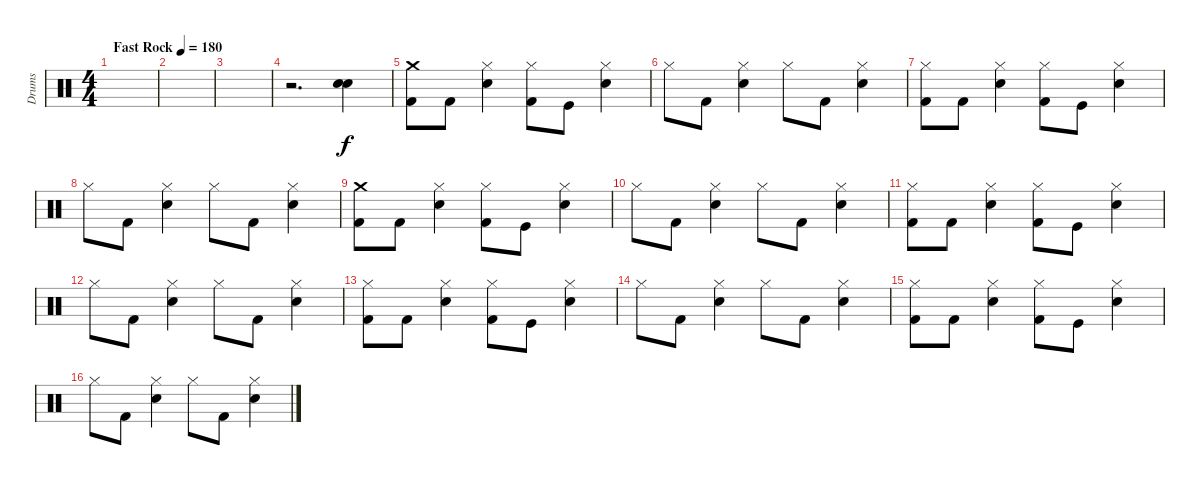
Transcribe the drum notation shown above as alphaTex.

\track ("Drums" "Drums") {instrument percussion}
\staff {score}
\articulation defaults
\ts (4 4)
\tempo (180 "Fast Rock")
\clef neutral
\ks c
|
|
|
r.2{d} ("Electric Snare (hit)" "Electric Snare (hit)").4 |
("Crash medium (hit)" "Kick (hit) 2").8 "Kick (hit) 2".8 ("Hi-Hat (closed)" "Electric Snare (hit)").4 ("Hi-Hat (closed)" "Kick (hit) 2").8 "Kick (hit)".8 ("Hi-Hat (closed)" "Electric Snare (hit)").4 |
"Hi-Hat (closed)".8 "Kick (hit) 2".8 ("Hi-Hat (closed)" "Electric Snare (hit)").4 "Hi-Hat (closed)".8 "Kick (hit) 2".8 ("Hi-Hat (closed)" "Electric Snare (hit)").4 |
("Hi-Hat (closed)" "Kick (hit) 2").8 "Kick (hit) 2".8 ("Hi-Hat (closed)" "Electric Snare (hit)").4 ("Hi-Hat (closed)" "Kick (hit) 2").8 "Kick (hit)".8 ("Hi-Hat (closed)" "Electric Snare (hit)").4 |
"Hi-Hat (closed)".8 "Kick (hit) 2".8 ("Hi-Hat (closed)" "Electric Snare (hit)").4 "Hi-Hat (closed)".8 "Kick (hit) 2".8 ("Hi-Hat (closed)" "Electric Snare (hit)").4 |
("Crash medium (hit)" "Kick (hit) 2").8 "Kick (hit) 2".8 ("Hi-Hat (closed)" "Electric Snare (hit)").4 ("Hi-Hat (closed)" "Kick (hit) 2").8 "Kick (hit)".8 ("Hi-Hat (closed)" "Electric Snare (hit)").4 |
"Hi-Hat (closed)".8 "Kick (hit) 2".8 ("Hi-Hat (closed)" "Electric Snare (hit)").4 "Hi-Hat (closed)".8 "Kick (hit) 2".8 ("Hi-Hat (closed)" "Electric Snare (hit)").4 |
("Hi-Hat (closed)" "Kick (hit) 2").8 "Kick (hit) 2".8 ("Hi-Hat (closed)" "Electric Snare (hit)").4 ("Hi-Hat (closed)" "Kick (hit) 2").8 "Kick (hit)".8 ("Hi-Hat (closed)" "Electric Snare (hit)").4 |
"Hi-Hat (closed)".8 "Kick (hit) 2".8 ("Hi-Hat (closed)" "Electric Snare (hit)").4 "Hi-Hat (closed)".8 "Kick (hit) 2".8 ("Hi-Hat (closed)" "Electric Snare (hit)").4 |
("Hi-Hat (closed)" "Kick (hit) 2").8 "Kick (hit) 2".8 ("Hi-Hat (closed)" "Electric Snare (hit)").4 ("Hi-Hat (closed)" "Kick (hit) 2").8 "Kick (hit)".8 ("Hi-Hat (closed)" "Electric Snare (hit)").4 |
"Hi-Hat (closed)".8 "Kick (hit) 2".8 ("Hi-Hat (closed)" "Electric Snare (hit)").4 "Hi-Hat (closed)".8 "Kick (hit) 2".8 ("Hi-Hat (closed)" "Electric Snare (hit)").4 |
("Hi-Hat (closed)" "Kick (hit) 2").8 "Kick (hit) 2".8 ("Hi-Hat (closed)" "Electric Snare (hit)").4 ("Hi-Hat (closed)" "Kick (hit) 2").8 "Kick (hit)".8 ("Hi-Hat (closed)" "Electric Snare (hit)").4 |
"Hi-Hat (closed)".8 "Kick (hit) 2".8 ("Hi-Hat (closed)" "Electric Snare (hit)").4 "Hi-Hat (closed)".8 "Kick (hit) 2".8 ("Hi-Hat (closed)" "Electric Snare (hit)").4
